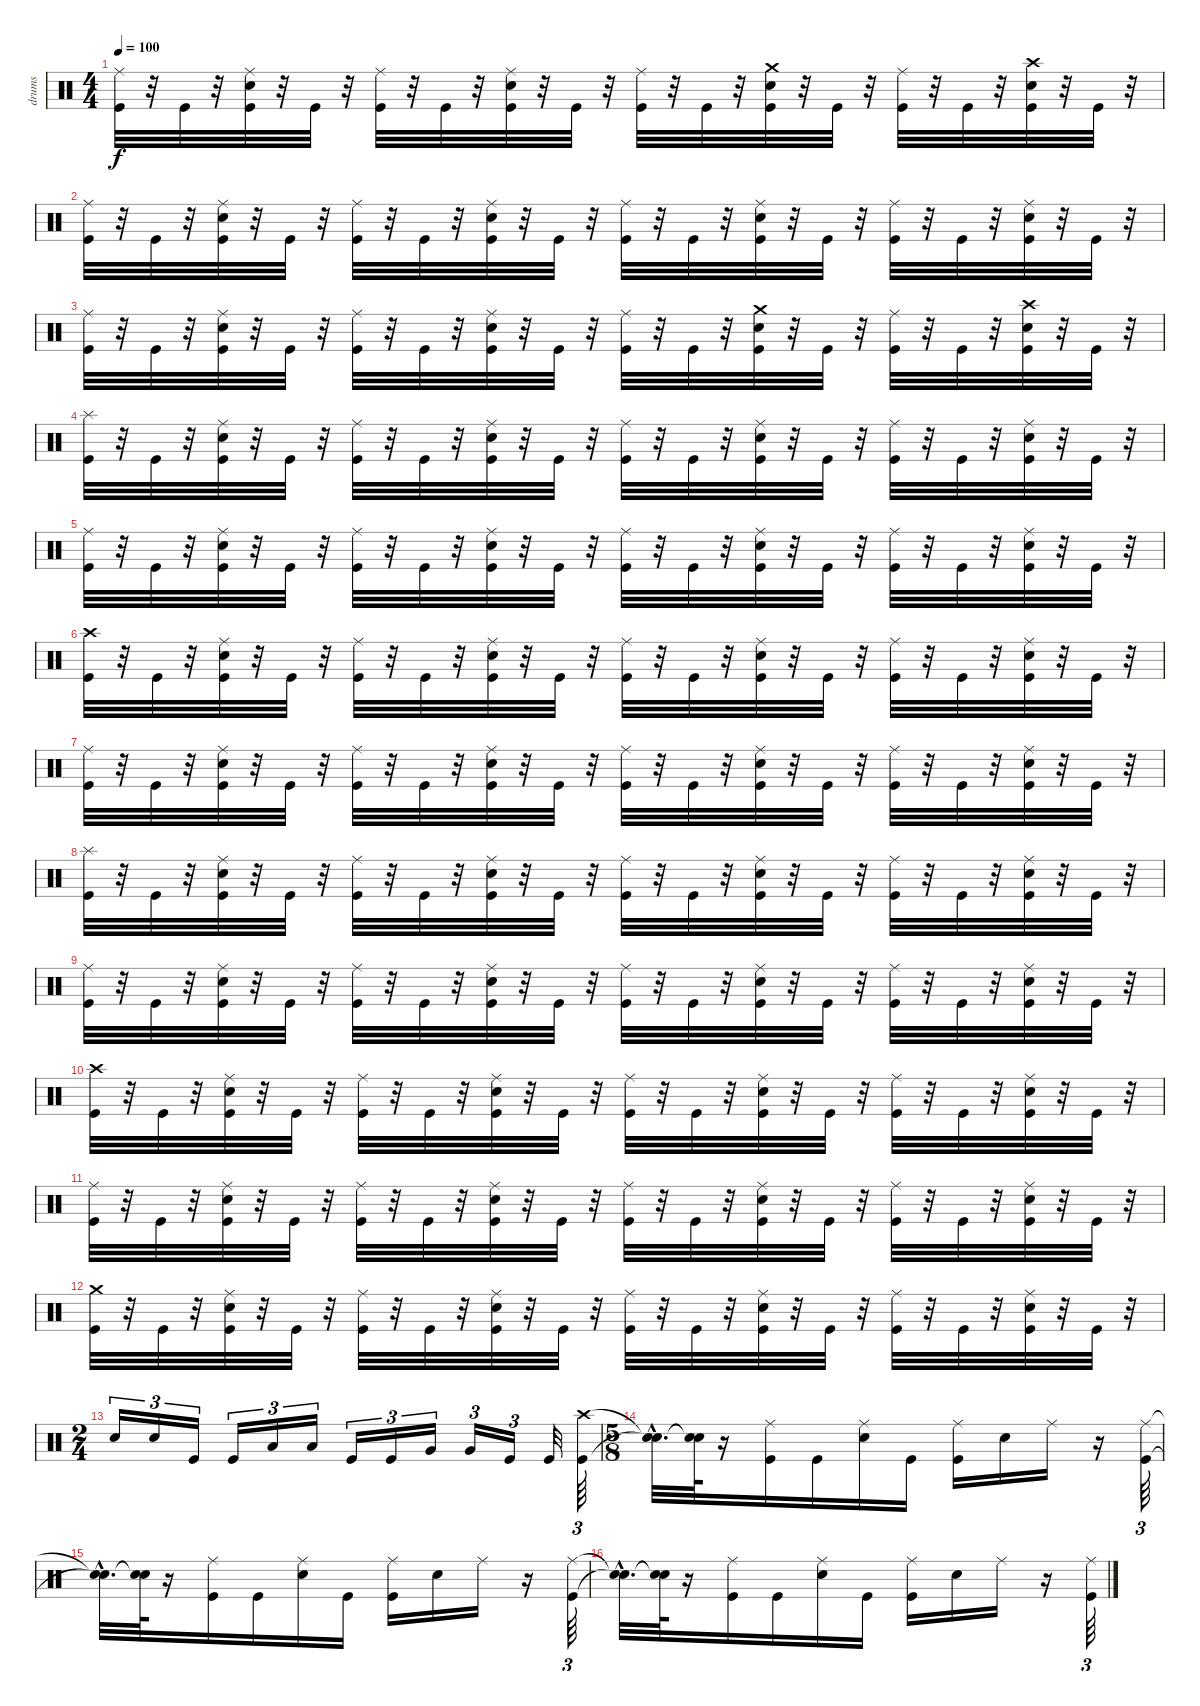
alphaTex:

\track ("drums" "drums") {instrument percussion}
\staff {score}
\articulation defaults
\ts (4 4)
\tempo 100
\clef neutral
\ks c
("Ride (middle)" "Kick (hit)").32{dy f} r.32 "Kick (hit)".32 r.32 ("Ride (middle)" "Kick (hit)" "Electric Snare (hit)").32 r.32 "Kick (hit)".32 r.32 ("Kick (hit)" "Ride (middle)").32 r.32 "Kick (hit)".32 r.32 ("Ride (middle)" "Kick (hit)" "Electric Snare (hit)").32 r.32 "Kick (hit)".32 r.32 ("Ride (middle)" "Kick (hit)").32 r.32 "Kick (hit)".32 r.32 ("Kick (hit)" "Crash medium (hit)" "Electric Snare (hit)").32 r.32 "Kick (hit)".32 r.32 ("Ride (middle)" "Kick (hit)").32 r.32 "Kick (hit)".32 r.32 ("Crash high (hit)" "Electric Snare (hit)" "Kick (hit)").32 r.32 "Kick (hit)".32 r.32 |
("Kick (hit)" "Ride (middle)").32 r.32 "Kick (hit)".32 r.32 ("Electric Snare (hit)" "Ride (middle)" "Kick (hit)").32 r.32 "Kick (hit)".32 r.32 ("Ride (middle)" "Kick (hit)").32 r.32 "Kick (hit)".32 r.32 ("Ride (middle)" "Kick (hit)" "Electric Snare (hit)").32 r.32 "Kick (hit)".32 r.32 ("Kick (hit)" "Ride (middle)").32 r.32 "Kick (hit)".32 r.32 ("Electric Snare (hit)" "Kick (hit)" "Ride (middle)").32 r.32 "Kick (hit)".32 r.32 ("Kick (hit)" "Ride (middle)").32 r.32 "Kick (hit)".32 r.32 ("Ride (middle)" "Electric Snare (hit)" "Kick (hit)").32 r.32 "Kick (hit)".32 r.32 |
("Ride (middle)" "Kick (hit)").32 r.32 "Kick (hit)".32 r.32 ("Kick (hit)" "Electric Snare (hit)" "Ride (middle)").32 r.32 "Kick (hit)".32 r.32 ("Ride (middle)" "Kick (hit)").32 r.32 "Kick (hit)".32 r.32 ("Kick (hit)" "Electric Snare (hit)" "Ride (middle)").32 r.32 "Kick (hit)".32 r.32 ("Kick (hit)" "Ride (middle)").32 r.32 "Kick (hit)".32 r.32 ("Kick (hit)" "Crash medium (hit)" "Electric Snare (hit)").32 r.32 "Kick (hit)".32 r.32 ("Kick (hit)" "Ride (middle)").32 r.32 "Kick (hit)".32 r.32 ("Kick (hit)" "Electric Snare (hit)" "Crash high (hit)").32 r.32 "Kick (hit)".32 r.32 |
("Kick (hit)" "Splash (hit)").32 r.32 "Kick (hit)".32 r.32 ("Ride (middle)" "Electric Snare (hit)" "Kick (hit)").32 r.32 "Kick (hit)".32 r.32 ("Ride (middle)" "Kick (hit)").32 r.32 "Kick (hit)".32 r.32 ("Ride (middle)" "Kick (hit)" "Electric Snare (hit)").32 r.32 "Kick (hit)".32 r.32 ("Ride (middle)" "Kick (hit)").32 r.32 "Kick (hit)".32 r.32 ("Kick (hit)" "Electric Snare (hit)" "Ride (middle)").32 r.32 "Kick (hit)".32 r.32 ("Ride (middle)" "Kick (hit)").32 r.32 "Kick (hit)".32 r.32 ("Ride (middle)" "Kick (hit)" "Electric Snare (hit)").32 r.32 "Kick (hit)".32 r.32 |
("Ride (middle)" "Kick (hit)").32 r.32 "Kick (hit)".32 r.32 ("Electric Snare (hit)" "Ride (middle)" "Kick (hit)").32 r.32 "Kick (hit)".32 r.32 ("Ride (middle)" "Kick (hit)").32 r.32 "Kick (hit)".32 r.32 ("Ride (middle)" "Kick (hit)" "Electric Snare (hit)").32 r.32 "Kick (hit)".32 r.32 ("Kick (hit)" "Ride (middle)").32 r.32 "Kick (hit)".32 r.32 ("Kick (hit)" "Ride (middle)" "Electric Snare (hit)").32 r.32 "Kick (hit)".32 r.32 ("Ride (middle)" "Kick (hit)").32 r.32 "Kick (hit)".32 r.32 ("Electric Snare (hit)" "Ride (middle)" "Kick (hit)").32 r.32 "Kick (hit)".32 r.32 |
("Crash high (hit)" "Kick (hit)").32 r.32 "Kick (hit)".32 r.32 ("Kick (hit)" "Electric Snare (hit)" "Ride (middle)").32 r.32 "Kick (hit)".32 r.32 ("Ride (middle)" "Kick (hit)").32 r.32 "Kick (hit)".32 r.32 ("Kick (hit)" "Ride (middle)" "Electric Snare (hit)").32 r.32 "Kick (hit)".32 r.32 ("Kick (hit)" "Ride (middle)").32 r.32 "Kick (hit)".32 r.32 ("Kick (hit)" "Ride (middle)" "Electric Snare (hit)").32 r.32 "Kick (hit)".32 r.32 ("Ride (middle)" "Kick (hit)").32 r.32 "Kick (hit)".32 r.32 ("Electric Snare (hit)" "Kick (hit)" "Ride (middle)").32 r.32 "Kick (hit)".32 r.32 |
("Kick (hit)" "Ride (middle)").32 r.32 "Kick (hit)".32 r.32 ("Ride (middle)" "Electric Snare (hit)" "Kick (hit)").32 r.32 "Kick (hit)".32 r.32 ("Kick (hit)" "Ride (middle)").32 r.32 "Kick (hit)".32 r.32 ("Electric Snare (hit)" "Ride (middle)" "Kick (hit)").32 r.32 "Kick (hit)".32 r.32 ("Ride (middle)" "Kick (hit)").32 r.32 "Kick (hit)".32 r.32 ("Electric Snare (hit)" "Kick (hit)" "Ride (middle)").32 r.32 "Kick (hit)".32 r.32 ("Ride (middle)" "Kick (hit)").32 r.32 "Kick (hit)".32 r.32 ("Ride (middle)" "Kick (hit)" "Electric Snare (hit)").32 r.32 "Kick (hit)".32 r.32 |
("Kick (hit)" "Splash (hit)").32 r.32 "Kick (hit)".32 r.32 ("Kick (hit)" "Ride (middle)" "Electric Snare (hit)").32 r.32 "Kick (hit)".32 r.32 ("Ride (middle)" "Kick (hit)").32 r.32 "Kick (hit)".32 r.32 ("Electric Snare (hit)" "Kick (hit)" "Ride (middle)").32 r.32 "Kick (hit)".32 r.32 ("Ride (middle)" "Kick (hit)").32 r.32 "Kick (hit)".32 r.32 ("Kick (hit)" "Ride (middle)" "Electric Snare (hit)").32 r.32 "Kick (hit)".32 r.32 ("Ride (middle)" "Kick (hit)").32 r.32 "Kick (hit)".32 r.32 ("Electric Snare (hit)" "Ride (middle)" "Kick (hit)").32 r.32 "Kick (hit)".32 r.32 |
("Kick (hit)" "Ride (middle)").32 r.32 "Kick (hit)".32 r.32 ("Kick (hit)" "Ride (middle)" "Electric Snare (hit)").32 r.32 "Kick (hit)".32 r.32 ("Kick (hit)" "Ride (middle)").32 r.32 "Kick (hit)".32 r.32 ("Electric Snare (hit)" "Ride (middle)" "Kick (hit)").32 r.32 "Kick (hit)".32 r.32 ("Kick (hit)" "Ride (middle)").32 r.32 "Kick (hit)".32 r.32 ("Kick (hit)" "Ride (middle)" "Electric Snare (hit)").32 r.32 "Kick (hit)".32 r.32 ("Kick (hit)" "Ride (middle)").32 r.32 "Kick (hit)".32 r.32 ("Ride (middle)" "Electric Snare (hit)" "Kick (hit)").32 r.32 "Kick (hit)".32 r.32 |
("Kick (hit)" "Crash high (hit)").32 r.32 "Kick (hit)".32 r.32 ("Kick (hit)" "Electric Snare (hit)" "Ride (middle)").32 r.32 "Kick (hit)".32 r.32 ("Ride (middle)" "Kick (hit)").32 r.32 "Kick (hit)".32 r.32 ("Electric Snare (hit)" "Ride (middle)" "Kick (hit)").32 r.32 "Kick (hit)".32 r.32 ("Ride (middle)" "Kick (hit)").32 r.32 "Kick (hit)".32 r.32 ("Kick (hit)" "Electric Snare (hit)" "Ride (middle)").32 r.32 "Kick (hit)".32 r.32 ("Kick (hit)" "Ride (middle)").32 r.32 "Kick (hit)".32 r.32 ("Ride (middle)" "Kick (hit)" "Electric Snare (hit)").32 r.32 "Kick (hit)".32 r.32 |
("Ride (middle)" "Kick (hit)").32 r.32 "Kick (hit)".32 r.32 ("Kick (hit)" "Ride (middle)" "Electric Snare (hit)").32 r.32 "Kick (hit)".32 r.32 ("Ride (middle)" "Kick (hit)").32 r.32 "Kick (hit)".32 r.32 ("Kick (hit)" "Electric Snare (hit)" "Ride (middle)").32 r.32 "Kick (hit)".32 r.32 ("Kick (hit)" "Ride (middle)").32 r.32 "Kick (hit)".32 r.32 ("Ride (middle)" "Kick (hit)" "Electric Snare (hit)").32 r.32 "Kick (hit)".32 r.32 ("Kick (hit)" "Ride (middle)").32 r.32 "Kick (hit)".32 r.32 ("Ride (middle)" "Electric Snare (hit)" "Kick (hit)").32 r.32 "Kick (hit)".32 r.32 |
("Crash medium (hit)" "Kick (hit)").32 r.32 "Kick (hit)".32 r.32 ("Electric Snare (hit)" "Ride (middle)" "Kick (hit)").32 r.32 "Kick (hit)".32 r.32 ("Ride (middle)" "Kick (hit)").32 r.32 "Kick (hit)".32 r.32 ("Kick (hit)" "Electric Snare (hit)" "Ride (middle)").32 r.32 "Kick (hit)".32 r.32 ("Kick (hit)" "Ride (middle)").32 r.32 "Kick (hit)".32 r.32 ("Ride (middle)" "Kick (hit)" "Electric Snare (hit)").32 r.32 "Kick (hit)".32 r.32 ("Kick (hit)" "Ride (middle)").32 r.32 "Kick (hit)".32 r.32 ("Kick (hit)" "Ride (middle)" "Electric Snare (hit)").32 r.32 "Kick (hit)".32 r.32 |
\ts (2 4)
"Electric Snare (hit)".16{tu (3 2)} "Electric Snare (hit)".16{tu (3 2)} "Kick (hit)".16{tu (3 2)} "Kick (hit)".16{tu (3 2)} "Low Tom (hit)".16{tu (3 2)} "Low Tom (hit)".16{tu (3 2)} "Kick (hit)".16{tu (3 2)} "Kick (hit)".16{tu (3 2)} "Very Low Tom (hit)".16{tu (3 2)} "Very Low Tom (hit)".16{tu (3 2)} "Kick (hit)".16{tu (3 2)} "Kick (hit)".32 ("Kick (hit)" "Crash high (hit)").64{tu (3 2)} |
\ts (5 8)
("Snare (hit)"{hac t} "Snare (hit)"{hac t}).32{d} ("Snare (hit)"{t} "Snare (hit)"{t}).64 r.16 ("Kick (hit)" "Ride (middle)").16 "Kick (hit)".16 ("Ride (middle)" "Electric Snare (hit)").16 "Kick (hit)".16 ("Kick (hit)" "Ride (middle)").16 "Electric Snare (hit)".16 "Ride (middle)".16 r.16 ("Kick (hit)" "Ride (middle)").64{tu (3 2)} |
("Snare (hit)"{hac t} "Snare (hit)"{hac t}).32{d} ("Snare (hit)"{t} "Snare (hit)"{t}).64 r.16 ("Kick (hit)" "Ride (middle)").16 "Kick (hit)".16 ("Electric Snare (hit)" "Ride (middle)").16 "Kick (hit)".16 ("Kick (hit)" "Ride (middle)").16 "Electric Snare (hit)".16 "Ride (middle)".16 r.16 ("Ride (middle)" "Kick (hit)").64{tu (3 2)} |
("Snare (hit)"{hac t} "Snare (hit)"{hac t}).32{d} ("Snare (hit)"{t} "Snare (hit)"{t}).64 r.16 ("Ride (middle)" "Kick (hit)").16 "Kick (hit)".16 ("Electric Snare (hit)" "Ride (middle)").16 "Kick (hit)".16 ("Ride (middle)" "Kick (hit)").16 "Electric Snare (hit)".16 "Ride (middle)".16 r.16 ("Ride (middle)" "Kick (hit)").64{tu (3 2)}
